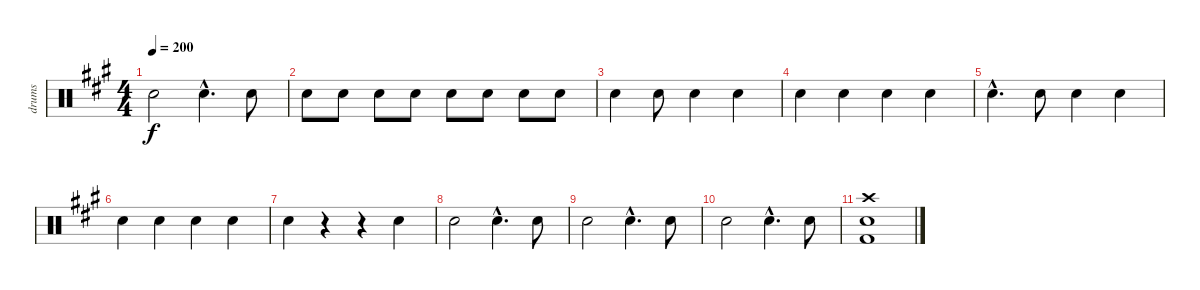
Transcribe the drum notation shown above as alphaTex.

\track ("drums" "drums") {instrument percussion}
\staff {score}
\articulation defaults
\ts (4 4)
\tempo 200
\clef neutral
\ks a "Electric Snare (hit)".2{dy f} "Electric Snare (hit)"{hac}.4{d} "Electric Snare (hit)".8
|
"Electric Snare (hit)".8 "Electric Snare (hit)".8 "Electric Snare (hit)".8 "Electric Snare (hit)".8 "Electric Snare (hit)".8 "Electric Snare (hit)".8 "Electric Snare (hit)".8 "Electric Snare (hit)".8 |
"Electric Snare (hit)".4 "Electric Snare (hit)".8 "Electric Snare (hit)".4 "Electric Snare (hit)".4 |
"Electric Snare (hit)".4 "Electric Snare (hit)".4 "Electric Snare (hit)".4 "Electric Snare (hit)".4 |
"Electric Snare (hit)"{hac}.4{d} "Electric Snare (hit)".8 "Electric Snare (hit)".4 "Electric Snare (hit)".4 |
"Electric Snare (hit)".4 "Electric Snare (hit)".4 "Electric Snare (hit)".4 "Electric Snare (hit)".4 |
"Electric Snare (hit)".4 r.4 r.4 "Electric Snare (hit)".4 |
"Electric Snare (hit)".2 "Electric Snare (hit)"{hac}.4{d} "Electric Snare (hit)".8 |
"Electric Snare (hit)".2 "Electric Snare (hit)"{hac}.4{d} "Electric Snare (hit)".8 |
"Electric Snare (hit)".2 "Electric Snare (hit)"{hac}.4{d} "Electric Snare (hit)".8 |
("Crash high (hit)" "Electric Snare (hit)" "Kick (hit) 2").1
